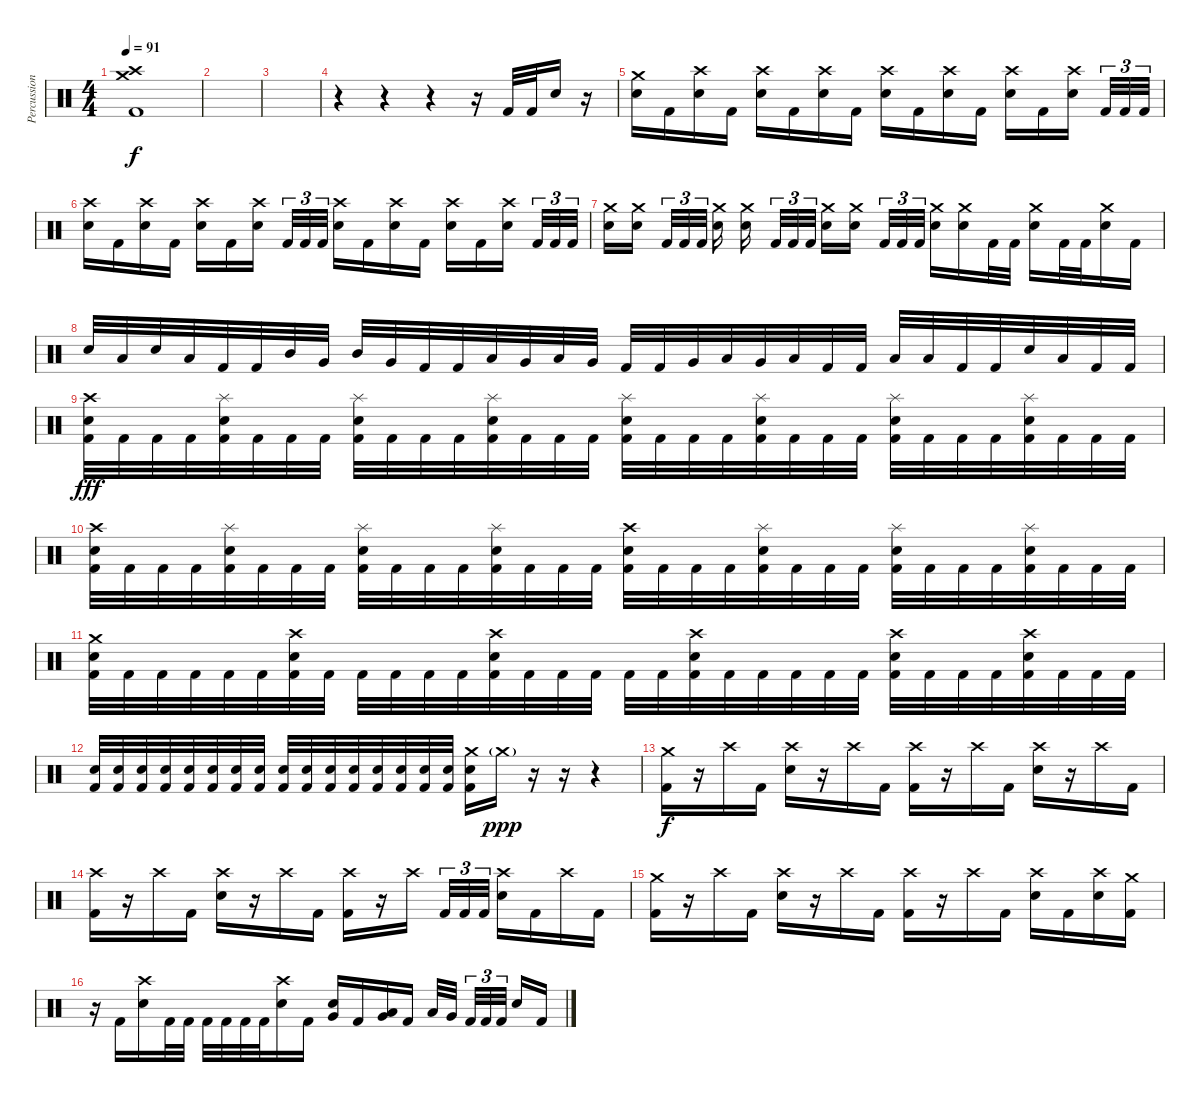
\track ("Percussion" "Percussion") {instrument percussion}
\staff {score}
\articulation defaults
\ts (4 4)
\tempo 91
\clef neutral
\ks c
("Crash high (hit)" "Crash medium (hit)" "Kick (hit) 2").1{dy f} |
|
|
r.4 r.4 r.4 r.16 "Kick (hit) 2".32 "Kick (hit) 2".32 "Electric Snare (hit)".16 r.16 |
("Crash medium (hit)" "Electric Snare (hit)").16 "Kick (hit) 2".16 ("Crash high (hit)" "Electric Snare (hit)").16 "Kick (hit) 2".16 ("Crash high (hit)" "Electric Snare (hit)").16 "Kick (hit) 2".16 ("Crash high (hit)" "Electric Snare (hit)").16 "Kick (hit) 2".16 ("Crash high (hit)" "Electric Snare (hit)").16 "Kick (hit) 2".16 ("Crash high (hit)" "Electric Snare (hit)").16 "Kick (hit) 2".16 ("Crash high (hit)" "Electric Snare (hit)").16 "Kick (hit) 2".16 ("Crash high (hit)" "Electric Snare (hit)").16{beam splitsecondary} "Kick (hit) 2".32{tu (3 2)} "Kick (hit) 2".32{tu (3 2)} "Kick (hit) 2".32{tu (3 2)} |
("Crash high (hit)" "Electric Snare (hit)").16 "Kick (hit) 2".16 ("Crash high (hit)" "Electric Snare (hit)").16 "Kick (hit) 2".16 ("Crash high (hit)" "Electric Snare (hit)").16 "Kick (hit) 2".16 ("Crash high (hit)" "Electric Snare (hit)").16{beam splitsecondary} "Kick (hit) 2".32{tu (3 2)} "Kick (hit) 2".32{tu (3 2)} "Kick (hit) 2".32{tu (3 2)} ("Crash high (hit)" "Electric Snare (hit)").16 "Kick (hit) 2".16 ("Crash high (hit)" "Electric Snare (hit)").16 "Kick (hit) 2".16 ("Crash high (hit)" "Electric Snare (hit)").16 "Kick (hit) 2".16 ("Crash high (hit)" "Electric Snare (hit)").16{beam splitsecondary} "Kick (hit) 2".32{tu (3 2)} "Kick (hit) 2".32{tu (3 2)} "Kick (hit) 2".32{tu (3 2)} |
("Crash medium (hit)" "Electric Snare (hit)").16 ("Crash medium (hit)" "Electric Snare (hit)").16{beam splitsecondary} "Kick (hit) 2".32{tu (3 2)} "Kick (hit) 2".32{tu (3 2)} "Kick (hit) 2".32{tu (3 2) beam splitsecondary} ("Crash medium (hit)" "Electric Snare (hit)").16 ("Crash medium (hit)" "Electric Snare (hit)").16{beam splitsecondary} "Kick (hit) 2".32{tu (3 2)} "Kick (hit) 2".32{tu (3 2)} "Kick (hit) 2".32{tu (3 2) beam splitsecondary} ("Crash medium (hit)" "Electric Snare (hit)").16 ("Crash medium (hit)" "Electric Snare (hit)").16 "Kick (hit) 2".32{tu (3 2)} "Kick (hit) 2".32{tu (3 2)} "Kick (hit) 2".32{tu (3 2) beam splitsecondary} ("Crash medium (hit)" "Electric Snare (hit)").16 ("Crash medium (hit)" "Electric Snare (hit)").16 "Kick (hit) 2".32 "Kick (hit) 2".32 ("Crash medium (hit)" "Electric Snare (hit)").16 "Kick (hit) 2".32 "Kick (hit) 2".32 ("Crash medium (hit)" "Electric Snare (hit)").16 "Kick (hit) 2".16 |
"Electric Snare (hit)".32 "Low Floor Tom (hit)".32 "Electric Snare (hit)".32 "Low Floor Tom (hit)".32 "Kick (hit) 2".32 "Kick (hit) 2".32 "Mid Tom (hit)".32 "Very Low Tom (hit)".32 "Mid Tom (hit)".32 "Very Low Tom (hit)".32 "Kick (hit) 2".32 "Kick (hit) 2".32 "Low Tom (hit)".32 "Very Low Tom (hit)".32 "Low Tom (hit)".32 "Very Low Tom (hit)".32 "Kick (hit) 2".32 "Kick (hit) 2".32 "Very Low Tom (hit)".32 "Low Floor Tom (hit)".32 "Very Low Tom (hit)".32 "Low Floor Tom (hit)".32 "Kick (hit) 2".32 "Kick (hit) 2".32 "Low Tom (hit)".32 "Low Floor Tom (hit)".32 "Kick (hit) 2".32 "Kick (hit) 2".32 "Electric Snare (hit)".32 "Low Floor Tom (hit)".32 "Kick (hit) 2".32 "Kick (hit) 2".32 |
("Crash high (hit)" "Electric Snare (hit)" "Kick (hit) 2").32{dy fff} "Kick (hit) 2".32 "Kick (hit) 2".32 "Kick (hit) 2".32 ("Splash (hit)" "Electric Snare (hit)" "Kick (hit) 2").32 "Kick (hit) 2".32 "Kick (hit) 2".32 "Kick (hit) 2".32 ("Splash (hit)" "Electric Snare (hit)" "Kick (hit) 2").32 "Kick (hit) 2".32 "Kick (hit) 2".32 "Kick (hit) 2".32 ("Splash (hit)" "Electric Snare (hit)" "Kick (hit) 2").32 "Kick (hit) 2".32 "Kick (hit) 2".32 "Kick (hit) 2".32 ("Splash (hit)" "Electric Snare (hit)" "Kick (hit) 2").32 "Kick (hit) 2".32 "Kick (hit) 2".32 "Kick (hit) 2".32 ("Splash (hit)" "Electric Snare (hit)" "Kick (hit) 2").32 "Kick (hit) 2".32 "Kick (hit) 2".32 "Kick (hit) 2".32 ("Splash (hit)" "Electric Snare (hit)" "Kick (hit) 2").32 "Kick (hit) 2".32 "Kick (hit) 2".32 "Kick (hit) 2".32 ("Splash (hit)" "Electric Snare (hit)" "Kick (hit) 2").32 "Kick (hit) 2".32 "Kick (hit) 2".32 "Kick (hit) 2".32 |
("Crash high (hit)" "Electric Snare (hit)" "Kick (hit) 2").32 "Kick (hit) 2".32 "Kick (hit) 2".32 "Kick (hit) 2".32 ("Splash (hit)" "Electric Snare (hit)" "Kick (hit) 2").32 "Kick (hit) 2".32 "Kick (hit) 2".32 "Kick (hit) 2".32 ("Splash (hit)" "Electric Snare (hit)" "Kick (hit) 2").32 "Kick (hit) 2".32 "Kick (hit) 2".32 "Kick (hit) 2".32 ("Splash (hit)" "Electric Snare (hit)" "Kick (hit) 2").32 "Kick (hit) 2".32 "Kick (hit) 2".32 "Kick (hit) 2".32 ("Crash high (hit)" "Electric Snare (hit)" "Kick (hit) 2").32 "Kick (hit) 2".32 "Kick (hit) 2".32 "Kick (hit) 2".32 ("Splash (hit)" "Electric Snare (hit)" "Kick (hit) 2").32 "Kick (hit) 2".32 "Kick (hit) 2".32 "Kick (hit) 2".32 ("Splash (hit)" "Electric Snare (hit)" "Kick (hit) 2").32 "Kick (hit) 2".32 "Kick (hit) 2".32 "Kick (hit) 2".32 ("Splash (hit)" "Electric Snare (hit)" "Kick (hit) 2").32 "Kick (hit) 2".32 "Kick (hit) 2".32 "Kick (hit) 2".32 |
("Crash medium (hit)" "Electric Snare (hit)" "Kick (hit) 2").32 "Kick (hit) 2".32 "Kick (hit) 2".32 "Kick (hit) 2".32 "Kick (hit) 2".32 "Kick (hit) 2".32 ("Crash high (hit)" "Electric Snare (hit)" "Kick (hit) 2").32 "Kick (hit) 2".32 "Kick (hit) 2".32 "Kick (hit) 2".32 "Kick (hit) 2".32 "Kick (hit) 2".32 ("Crash high (hit)" "Electric Snare (hit)" "Kick (hit) 2").32 "Kick (hit) 2".32 "Kick (hit) 2".32 "Kick (hit) 2".32 "Kick (hit) 2".32 "Kick (hit) 2".32 ("Crash high (hit)" "Electric Snare (hit)" "Kick (hit) 2").32 "Kick (hit) 2".32 "Kick (hit) 2".32 "Kick (hit) 2".32 "Kick (hit) 2".32 "Kick (hit) 2".32 ("Crash high (hit)" "Electric Snare (hit)" "Kick (hit) 2").32 "Kick (hit) 2".32 "Kick (hit) 2".32 "Kick (hit) 2".32 ("Crash high (hit)" "Electric Snare (hit)" "Kick (hit) 2").32 "Kick (hit) 2".32 "Kick (hit) 2".32 "Kick (hit) 2".32 |
("Electric Snare (hit)" "Kick (hit) 2").32 ("Electric Snare (hit)" "Kick (hit) 2").32 ("Electric Snare (hit)" "Kick (hit) 2").32 ("Electric Snare (hit)" "Kick (hit) 2").32 ("Electric Snare (hit)" "Kick (hit) 2").32 ("Electric Snare (hit)" "Kick (hit) 2").32 ("Electric Snare (hit)" "Kick (hit) 2").32 ("Electric Snare (hit)" "Kick (hit) 2").32 ("Electric Snare (hit)" "Kick (hit) 2").32 ("Electric Snare (hit)" "Kick (hit) 2").32 ("Electric Snare (hit)" "Kick (hit) 2").32 ("Electric Snare (hit)" "Kick (hit) 2").32 ("Electric Snare (hit)" "Kick (hit) 2").32 ("Electric Snare (hit)" "Kick (hit) 2").32 ("Electric Snare (hit)" "Kick (hit) 2").32 ("Electric Snare (hit)" "Kick (hit) 2").32 ("Crash medium (hit)" "Electric Snare (hit)" "Kick (hit) 2").16 "Crash medium (hit)"{g}.16{dy ppp} r.16 r.16 r.4 |
("Crash medium (hit)" "Kick (hit) 2").16{dy f} r.16 "Crash high (hit)".16 "Kick (hit) 2".16 ("Crash high (hit)" "Electric Snare (hit)").16 r.16 "Crash high (hit)".16 "Kick (hit) 2".16 ("Crash high (hit)" "Kick (hit) 2").16 r.16 "Crash high (hit)".16 "Kick (hit) 2".16 ("Crash high (hit)" "Electric Snare (hit)").16 r.16 "Crash high (hit)".16 "Kick (hit) 2".16 |
("Crash high (hit)" "Kick (hit) 2").16 r.16 "Crash high (hit)".16 "Kick (hit) 2".16 ("Crash high (hit)" "Electric Snare (hit)").16 r.16 "Crash high (hit)".16 "Kick (hit) 2".16 ("Crash high (hit)" "Kick (hit) 2").16 r.16 "Crash high (hit)".16{beam splitsecondary} "Kick (hit) 2".32{tu (3 2)} "Kick (hit) 2".32{tu (3 2)} "Kick (hit) 2".32{tu (3 2)} ("Crash high (hit)" "Electric Snare (hit)").16 "Kick (hit) 2".16 "Crash high (hit)".16 "Kick (hit) 2".16 |
("Crash medium (hit)" "Kick (hit) 2").16 r.16 "Crash high (hit)".16 "Kick (hit) 2".16 ("Crash high (hit)" "Electric Snare (hit)").16 r.16 "Crash high (hit)".16 "Kick (hit) 2".16 ("Crash high (hit)" "Kick (hit) 2").16 r.16 "Crash high (hit)".16 "Kick (hit) 2".16 ("Crash high (hit)" "Electric Snare (hit)").16 "Kick (hit) 2".16 ("Crash high (hit)" "Electric Snare (hit)").16 ("Crash medium (hit)" "Kick (hit) 2").16 |
r.16 "Kick (hit) 2".16 ("Crash high (hit)" "Electric Snare (hit)").16 "Kick (hit) 2".32 "Kick (hit) 2".32 "Kick (hit) 2".32 "Kick (hit) 2".32 "Kick (hit) 2".32 "Kick (hit) 2".32 ("Crash high (hit)" "Electric Snare (hit)").16 "Kick (hit) 2".16 ("Electric Snare (hit)" "Very Low Tom (hit)").16 "Kick (hit) 2".16 ("Very Low Tom (hit)" "Low Floor Tom (hit)").16 "Kick (hit) 2".16 "Low Tom (hit)".32 "Very Low Tom (hit)".32{beam splitsecondary} "Kick (hit) 2".32{tu (3 2)} "Kick (hit) 2".32{tu (3 2)} "Kick (hit) 2".32{tu (3 2) beam splitsecondary} "Electric Snare (hit)".16 "Kick (hit) 2".16
